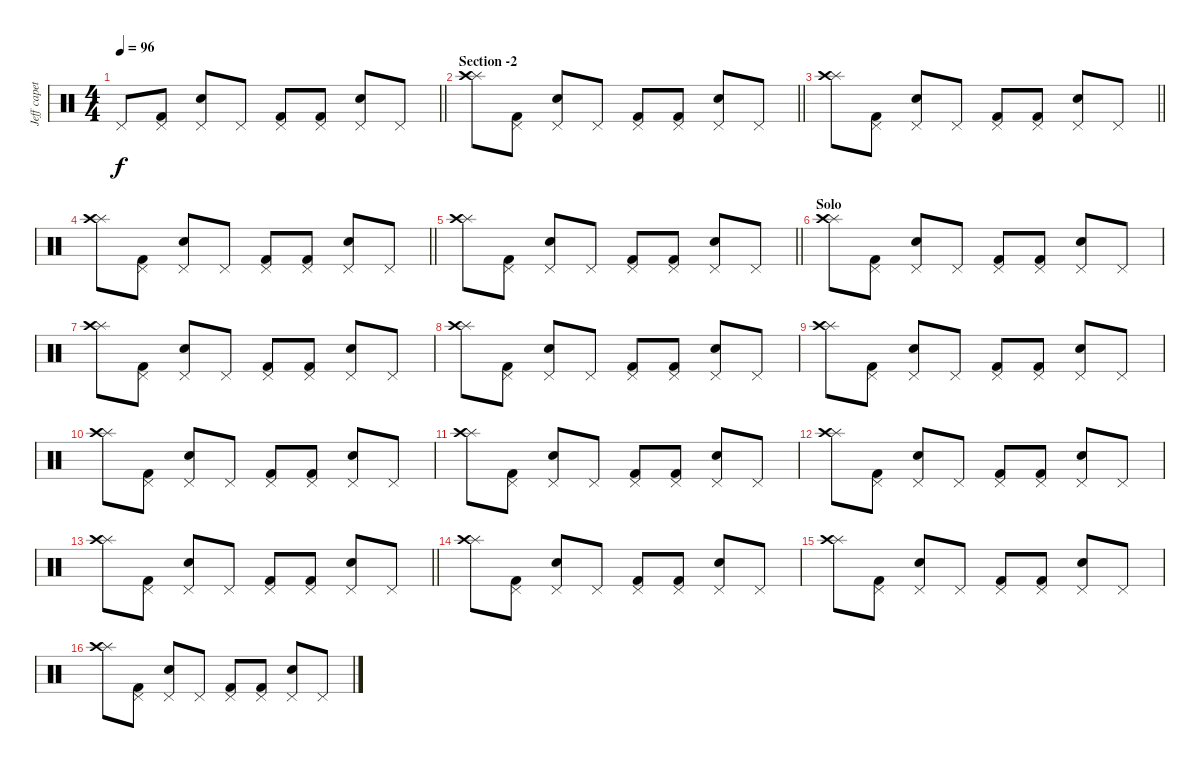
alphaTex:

\track ("Jeff capetally" "Jeff capet") {instrument percussion}
\staff {score}
\articulation defaults
\ts (4 4)
\tempo 96
\clef neutral
\barLineRight lightlight
\ks c "Pedal Hi-Hat (hit)".8{dy f}
("Pedal Hi-Hat (hit)" "Kick (hit) 2").8 ("Pedal Hi-Hat (hit)" "Snare (hit) 2").8 "Pedal Hi-Hat (hit)".8 ("Pedal Hi-Hat (hit)" "Kick (hit) 2").8 ("Pedal Hi-Hat (hit)" "Kick (hit) 2").8 ("Pedal Hi-Hat (hit)" "Snare (hit) 2").8 "Pedal Hi-Hat (hit)".8 |
\section ("" "Section -2")
\barLineRight lightlight
("Splash (hit)" "Crash high (hit)").8 ("Pedal Hi-Hat (hit)" "Kick (hit) 2").8 ("Pedal Hi-Hat (hit)" "Snare (hit) 2").8 "Pedal Hi-Hat (hit)".8 ("Pedal Hi-Hat (hit)" "Kick (hit) 2").8 ("Pedal Hi-Hat (hit)" "Kick (hit) 2").8 ("Pedal Hi-Hat (hit)" "Snare (hit) 2").8 "Pedal Hi-Hat (hit)".8 |
\barLineRight lightlight
("Splash (hit)" "Crash high (hit)").8 ("Pedal Hi-Hat (hit)" "Kick (hit) 2").8 ("Pedal Hi-Hat (hit)" "Snare (hit) 2").8 "Pedal Hi-Hat (hit)".8 ("Pedal Hi-Hat (hit)" "Kick (hit) 2").8 ("Pedal Hi-Hat (hit)" "Kick (hit) 2").8 ("Pedal Hi-Hat (hit)" "Snare (hit) 2").8 "Pedal Hi-Hat (hit)".8 |
\barLineRight lightlight
("Splash (hit)" "Crash high (hit)").8 ("Pedal Hi-Hat (hit)" "Kick (hit) 2").8 ("Pedal Hi-Hat (hit)" "Snare (hit) 2").8 "Pedal Hi-Hat (hit)".8 ("Pedal Hi-Hat (hit)" "Kick (hit) 2").8 ("Pedal Hi-Hat (hit)" "Kick (hit) 2").8 ("Pedal Hi-Hat (hit)" "Snare (hit) 2").8 "Pedal Hi-Hat (hit)".8 |
\barLineRight lightlight
("Splash (hit)" "Crash high (hit)").8 ("Pedal Hi-Hat (hit)" "Kick (hit) 2").8 ("Pedal Hi-Hat (hit)" "Snare (hit) 2").8 "Pedal Hi-Hat (hit)".8 ("Pedal Hi-Hat (hit)" "Kick (hit) 2").8 ("Pedal Hi-Hat (hit)" "Kick (hit) 2").8 ("Pedal Hi-Hat (hit)" "Snare (hit) 2").8 "Pedal Hi-Hat (hit)".8 |
\section ("" "Solo")
("Splash (hit)" "Crash high (hit)").8 ("Pedal Hi-Hat (hit)" "Kick (hit) 2").8 ("Pedal Hi-Hat (hit)" "Snare (hit) 2").8 "Pedal Hi-Hat (hit)".8 ("Pedal Hi-Hat (hit)" "Kick (hit) 2").8 ("Pedal Hi-Hat (hit)" "Kick (hit) 2").8 ("Pedal Hi-Hat (hit)" "Snare (hit) 2").8 "Pedal Hi-Hat (hit)".8 |
("Splash (hit)" "Crash high (hit)").8 ("Pedal Hi-Hat (hit)" "Kick (hit) 2").8 ("Pedal Hi-Hat (hit)" "Snare (hit) 2").8 "Pedal Hi-Hat (hit)".8 ("Pedal Hi-Hat (hit)" "Kick (hit) 2").8 ("Pedal Hi-Hat (hit)" "Kick (hit) 2").8 ("Pedal Hi-Hat (hit)" "Snare (hit) 2").8 "Pedal Hi-Hat (hit)".8 |
("Splash (hit)" "Crash high (hit)").8 ("Pedal Hi-Hat (hit)" "Kick (hit) 2").8 ("Pedal Hi-Hat (hit)" "Snare (hit) 2").8 "Pedal Hi-Hat (hit)".8 ("Pedal Hi-Hat (hit)" "Kick (hit) 2").8 ("Pedal Hi-Hat (hit)" "Kick (hit) 2").8 ("Pedal Hi-Hat (hit)" "Snare (hit) 2").8 "Pedal Hi-Hat (hit)".8 |
("Splash (hit)" "Crash high (hit)").8 ("Pedal Hi-Hat (hit)" "Kick (hit) 2").8 ("Pedal Hi-Hat (hit)" "Snare (hit) 2").8 "Pedal Hi-Hat (hit)".8 ("Pedal Hi-Hat (hit)" "Kick (hit) 2").8 ("Pedal Hi-Hat (hit)" "Kick (hit) 2").8 ("Pedal Hi-Hat (hit)" "Snare (hit) 2").8 "Pedal Hi-Hat (hit)".8 |
("Splash (hit)" "Crash high (hit)").8 ("Pedal Hi-Hat (hit)" "Kick (hit) 2").8 ("Pedal Hi-Hat (hit)" "Snare (hit) 2").8 "Pedal Hi-Hat (hit)".8 ("Pedal Hi-Hat (hit)" "Kick (hit) 2").8 ("Pedal Hi-Hat (hit)" "Kick (hit) 2").8 ("Pedal Hi-Hat (hit)" "Snare (hit) 2").8 "Pedal Hi-Hat (hit)".8 |
("Splash (hit)" "Crash high (hit)").8 ("Pedal Hi-Hat (hit)" "Kick (hit) 2").8 ("Pedal Hi-Hat (hit)" "Snare (hit) 2").8 "Pedal Hi-Hat (hit)".8 ("Pedal Hi-Hat (hit)" "Kick (hit) 2").8 ("Pedal Hi-Hat (hit)" "Kick (hit) 2").8 ("Pedal Hi-Hat (hit)" "Snare (hit) 2").8 "Pedal Hi-Hat (hit)".8 |
("Splash (hit)" "Crash high (hit)").8 ("Pedal Hi-Hat (hit)" "Kick (hit) 2").8 ("Pedal Hi-Hat (hit)" "Snare (hit) 2").8 "Pedal Hi-Hat (hit)".8 ("Pedal Hi-Hat (hit)" "Kick (hit) 2").8 ("Pedal Hi-Hat (hit)" "Kick (hit) 2").8 ("Pedal Hi-Hat (hit)" "Snare (hit) 2").8 "Pedal Hi-Hat (hit)".8 |
\barLineRight lightlight
("Splash (hit)" "Crash high (hit)").8 ("Pedal Hi-Hat (hit)" "Kick (hit) 2").8 ("Pedal Hi-Hat (hit)" "Snare (hit) 2").8 "Pedal Hi-Hat (hit)".8 ("Pedal Hi-Hat (hit)" "Kick (hit) 2").8 ("Pedal Hi-Hat (hit)" "Kick (hit) 2").8 ("Pedal Hi-Hat (hit)" "Snare (hit) 2").8 "Pedal Hi-Hat (hit)".8 |
("Splash (hit)" "Crash high (hit)").8 ("Pedal Hi-Hat (hit)" "Kick (hit) 2").8 ("Pedal Hi-Hat (hit)" "Snare (hit) 2").8 "Pedal Hi-Hat (hit)".8 ("Pedal Hi-Hat (hit)" "Kick (hit) 2").8 ("Pedal Hi-Hat (hit)" "Kick (hit) 2").8 ("Pedal Hi-Hat (hit)" "Snare (hit) 2").8 "Pedal Hi-Hat (hit)".8 |
("Splash (hit)" "Crash high (hit)").8 ("Pedal Hi-Hat (hit)" "Kick (hit) 2").8 ("Pedal Hi-Hat (hit)" "Snare (hit) 2").8 "Pedal Hi-Hat (hit)".8 ("Pedal Hi-Hat (hit)" "Kick (hit) 2").8 ("Pedal Hi-Hat (hit)" "Kick (hit) 2").8 ("Pedal Hi-Hat (hit)" "Snare (hit) 2").8 "Pedal Hi-Hat (hit)".8 |
("Splash (hit)" "Crash high (hit)").8 ("Pedal Hi-Hat (hit)" "Kick (hit) 2").8 ("Pedal Hi-Hat (hit)" "Snare (hit) 2").8 "Pedal Hi-Hat (hit)".8 ("Pedal Hi-Hat (hit)" "Kick (hit) 2").8 ("Pedal Hi-Hat (hit)" "Kick (hit) 2").8 ("Pedal Hi-Hat (hit)" "Snare (hit) 2").8 "Pedal Hi-Hat (hit)".8
